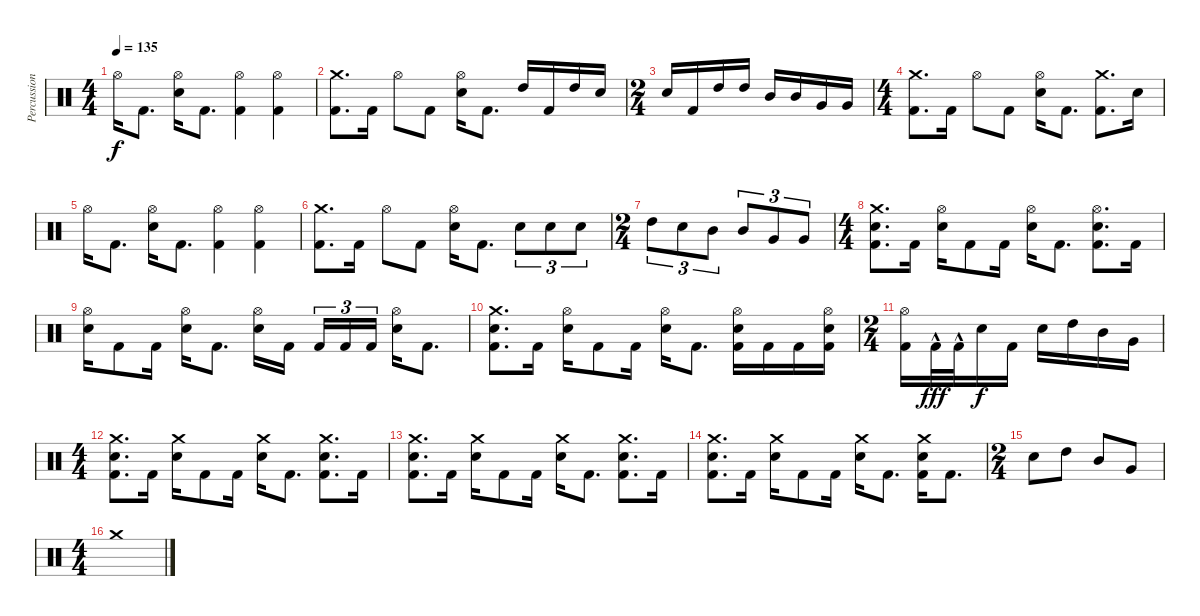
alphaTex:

\track ("Percussions" "Percussion") {instrument percussion}
\staff {score}
\articulation defaults
\ts (4 4)
\tempo 135
\clef neutral
\ks c "Hi-Hat (open)".16{dy f} "Kick (hit) 2".8{d}
("Hi-Hat (open)" "Electric Snare (hit)").16 "Kick (hit) 2".8{d} ("Hi-Hat (open)" "Kick (hit) 2").4 ("Hi-Hat (open)" "Kick (hit) 2").4 |
("Crash medium (hit)" "Kick (hit) 2").8{d} "Kick (hit) 2".16 "Hi-Hat (open)".8 "Kick (hit) 2".8 ("Hi-Hat (open)" "Electric Snare (hit)").16 "Kick (hit) 2".8{d} "High Tom (hit)".16 "Kick (hit) 2".16 "High Tom (hit)".16 "Electric Snare (hit)".16 |
\ts (2 4)
"Electric Snare (hit)".16 "Kick (hit) 2".16 "High Tom (hit)".16 "High Tom (hit)".16 "Mid Tom (hit)".16 "Mid Tom (hit)".16 "Very Low Tom (hit)".16 "Very Low Tom (hit)".16 |
\ts (4 4)
("Crash medium (hit)" "Kick (hit) 2").8{d} "Kick (hit) 2".16 "Hi-Hat (open)".8 "Kick (hit) 2".8 ("Hi-Hat (open)" "Electric Snare (hit)").16 "Kick (hit) 2".8{d} ("Crash medium (hit)" "Kick (hit) 2").8{d} "Electric Snare (hit)".16 |
"Hi-Hat (open)".16 "Kick (hit) 2".8{d} ("Hi-Hat (open)" "Electric Snare (hit)").16 "Kick (hit) 2".8{d} ("Hi-Hat (open)" "Kick (hit) 2").4 ("Hi-Hat (open)" "Kick (hit) 2").4 |
("Crash medium (hit)" "Kick (hit) 2").8{d} "Kick (hit) 2".16 "Hi-Hat (open)".8 "Kick (hit) 2".8 ("Hi-Hat (open)" "Electric Snare (hit)").16 "Kick (hit) 2".8{d} "Electric Snare (hit)".8{tu (3 2)} "Electric Snare (hit)".8{tu (3 2)} "Electric Snare (hit)".8{tu (3 2)} |
\ts (2 4)
"High Tom (hit)".8{tu (3 2)} "Electric Snare (hit)".8{tu (3 2)} "Mid Tom (hit)".8{tu (3 2)} "Mid Tom (hit)".8{tu (3 2)} "Very Low Tom (hit)".8{tu (3 2)} "Very Low Tom (hit)".8{tu (3 2)} |
\ts (4 4)
("Crash medium (hit)" "Electric Snare (hit)" "Kick (hit) 2").8{d} "Kick (hit) 2".16 ("Hi-Hat (open)" "Electric Snare (hit)").16 "Kick (hit) 2".8 "Kick (hit) 2".16 ("Hi-Hat (open)" "Electric Snare (hit)").16 "Kick (hit) 2".8{d} ("Hi-Hat (open)" "Electric Snare (hit)" "Kick (hit) 2").8{d} "Kick (hit) 2".16 |
("Hi-Hat (open)" "Electric Snare (hit)").16 "Kick (hit) 2".8 "Kick (hit) 2".16 ("Hi-Hat (open)" "Electric Snare (hit)").16 "Kick (hit) 2".8{d} ("Hi-Hat (open)" "Electric Snare (hit)").16 "Kick (hit) 2".16{beam splitsecondary} "Kick (hit) 2".16{tu (3 2)} "Kick (hit) 2".16{tu (3 2)} "Kick (hit) 2".16{tu (3 2)} ("Hi-Hat (open)" "Electric Snare (hit)").16 "Kick (hit) 2".8{d} |
("Crash medium (hit)" "Electric Snare (hit)" "Kick (hit) 2").8{d} "Kick (hit) 2".16 ("Hi-Hat (open)" "Electric Snare (hit)").16 "Kick (hit) 2".8 "Kick (hit) 2".16 ("Hi-Hat (open)" "Electric Snare (hit)").16 "Kick (hit) 2".8{d} ("Hi-Hat (open)" "Electric Snare (hit)" "Kick (hit) 2").16 "Kick (hit) 2".16 "Kick (hit) 2".16 ("Hi-Hat (open)" "Electric Snare (hit)" "Kick (hit) 2").16 |
\ts (2 4)
("Hi-Hat (open)" "Kick (hit) 2").16 "Kick (hit) 2"{hac}.32{dy fff} "Kick (hit) 2"{hac}.32 "Electric Snare (hit)".16{dy f} "Kick (hit) 2".16 "Electric Snare (hit)".16 "High Tom (hit)".16 "Mid Tom (hit)".16 "Very Low Tom (hit)".16 |
\ts (4 4)
("Crash medium (hit)" "Electric Snare (hit)" "Kick (hit) 2").8{d} "Kick (hit) 2".16 ("Crash medium (hit)" "Electric Snare (hit)").16 "Kick (hit) 2".8 "Kick (hit) 2".16 ("Crash medium (hit)" "Electric Snare (hit)").16 "Kick (hit) 2".8{d} ("Crash medium (hit)" "Electric Snare (hit)" "Kick (hit) 2").8{d} "Kick (hit) 2".16 |
("Crash medium (hit)" "Electric Snare (hit)" "Kick (hit) 2").8{d} "Kick (hit) 2".16 ("Crash medium (hit)" "Electric Snare (hit)").16 "Kick (hit) 2".8 "Kick (hit) 2".16 ("Crash medium (hit)" "Electric Snare (hit)").16 "Kick (hit) 2".8{d} ("Crash medium (hit)" "Electric Snare (hit)" "Kick (hit) 2").8{d} "Kick (hit) 2".16 |
("Crash medium (hit)" "Electric Snare (hit)" "Kick (hit) 2").8{d} "Kick (hit) 2".16 ("Crash medium (hit)" "Electric Snare (hit)").16 "Kick (hit) 2".8 "Kick (hit) 2".16 ("Crash medium (hit)" "Electric Snare (hit)").16 "Kick (hit) 2".8{d} ("Crash medium (hit)" "Electric Snare (hit)" "Kick (hit) 2").16 "Kick (hit) 2".8{d} |
\ts (2 4)
"Electric Snare (hit)".8 "High Tom (hit)".8 "Mid Tom (hit)".8 "Very Low Tom (hit)".8 |
\ts (4 4)
"Crash medium (hit)".1
